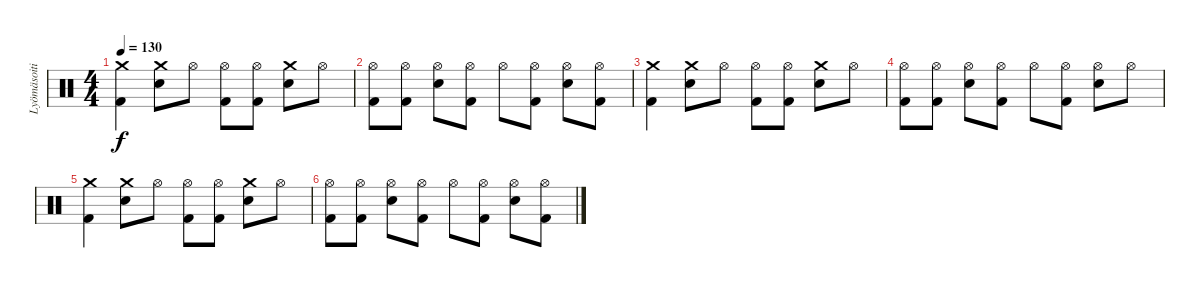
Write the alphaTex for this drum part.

\track ("Lyömäsoitin" "Lyömäsoiti") {instrument percussion}
\staff {score}
\articulation defaults
\ts (4 4)
\tempo 130
\clef neutral
\ks c
("Kick (hit) 2" "Crash medium (hit)").4{dy f} ("Snare (hit) 2" "Crash medium (hit)").8 "Hi-Hat (open)".8 ("Kick (hit) 2" "Hi-Hat (open)").8 ("Kick (hit) 2" "Hi-Hat (open)").8 ("Snare (hit) 2" "Crash medium (hit)").8 "Hi-Hat (open)".8 |
("Kick (hit) 2" "Hi-Hat (open)").8 ("Kick (hit) 2" "Hi-Hat (open)").8 ("Snare (hit) 2" "Hi-Hat (open)").8 ("Hi-Hat (open)" "Kick (hit) 2").8 "Hi-Hat (open)".8 ("Kick (hit) 2" "Hi-Hat (open)").8 ("Snare (hit) 2" "Hi-Hat (open)").8 ("Hi-Hat (open)" "Kick (hit) 2").8 |
("Kick (hit) 2" "Crash medium (hit)").4 ("Snare (hit) 2" "Crash medium (hit)").8 "Hi-Hat (open)".8 ("Kick (hit) 2" "Hi-Hat (open)").8 ("Kick (hit) 2" "Hi-Hat (open)").8 ("Snare (hit) 2" "Crash medium (hit)").8 "Hi-Hat (open)".8 |
("Kick (hit) 2" "Hi-Hat (open)").8 ("Kick (hit) 2" "Hi-Hat (open)").8 ("Snare (hit) 2" "Hi-Hat (open)").8 ("Hi-Hat (open)" "Kick (hit) 2").8 "Hi-Hat (open)".8 ("Kick (hit) 2" "Hi-Hat (open)").8 ("Snare (hit) 2" "Hi-Hat (open)").8 "Hi-Hat (open)".8 |
("Kick (hit) 2" "Crash medium (hit)").4 ("Snare (hit) 2" "Crash medium (hit)").8 "Hi-Hat (open)".8 ("Kick (hit) 2" "Hi-Hat (open)").8 ("Kick (hit) 2" "Hi-Hat (open)").8 ("Snare (hit) 2" "Crash medium (hit)").8 "Hi-Hat (open)".8 |
("Kick (hit) 2" "Hi-Hat (open)").8 ("Kick (hit) 2" "Hi-Hat (open)").8 ("Snare (hit) 2" "Hi-Hat (open)").8 ("Hi-Hat (open)" "Kick (hit) 2").8 "Hi-Hat (open)".8 ("Kick (hit) 2" "Hi-Hat (open)").8 ("Snare (hit) 2" "Hi-Hat (open)").8 ("Hi-Hat (open)" "Kick (hit) 2").8
